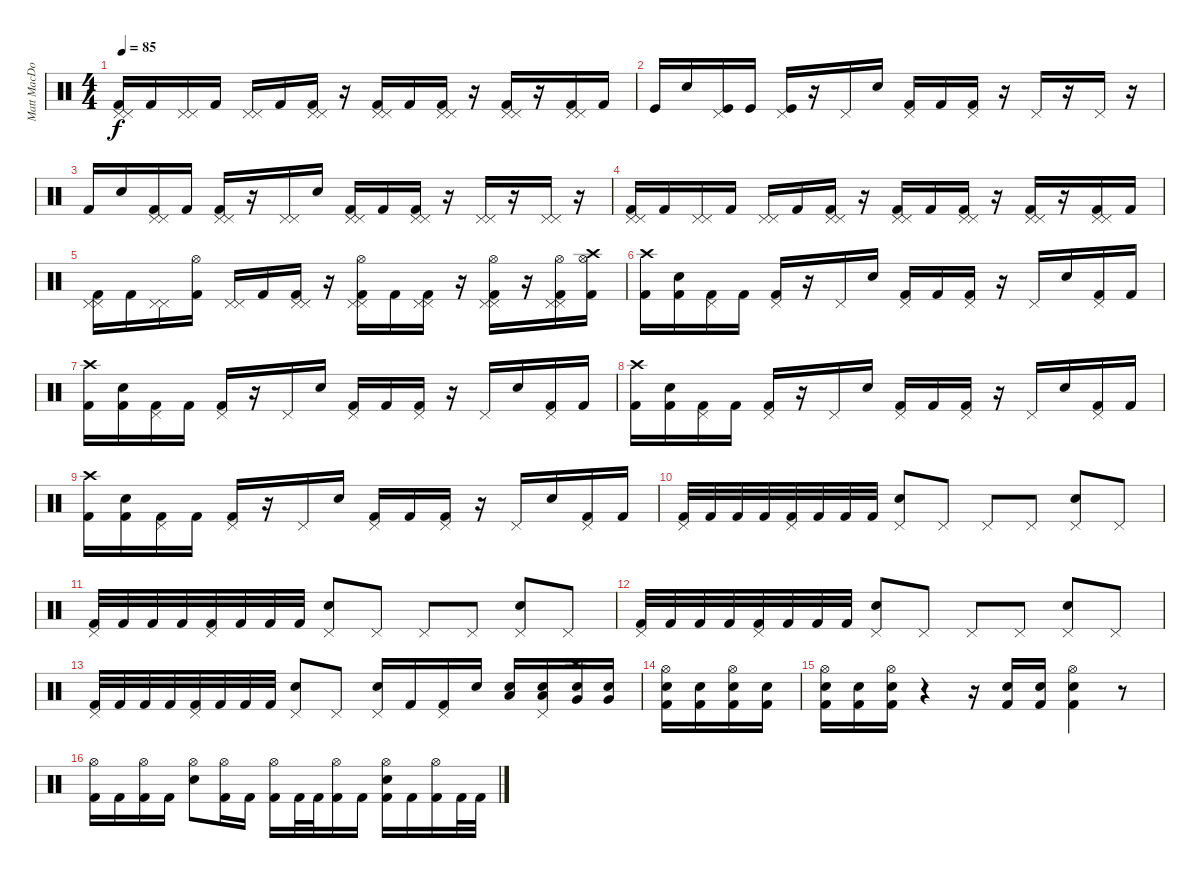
\track ("Matt MacDonough" "Matt MacDo") {instrument percussion}
\staff {score}
\articulation defaults
\ts (4 4)
\tempo 85
\clef neutral
\ks c
("Pedal Hi-Hat (hit)" "Pedal Hi-Hat (hit)" "Kick (hit) 2").16{dy f} "Kick (hit) 2".16 ("Pedal Hi-Hat (hit)" "Pedal Hi-Hat (hit)").16 "Kick (hit) 2".16 ("Pedal Hi-Hat (hit)" "Pedal Hi-Hat (hit)").16 "Kick (hit) 2".16 ("Pedal Hi-Hat (hit)" "Pedal Hi-Hat (hit)" "Kick (hit) 2").16 r.16 ("Pedal Hi-Hat (hit)" "Pedal Hi-Hat (hit)" "Kick (hit) 2").16 "Kick (hit) 2".16 ("Pedal Hi-Hat (hit)" "Pedal Hi-Hat (hit)" "Kick (hit) 2").16 r.16 ("Pedal Hi-Hat (hit)" "Pedal Hi-Hat (hit)" "Kick (hit) 2").16 r.16 ("Pedal Hi-Hat (hit)" "Pedal Hi-Hat (hit)" "Kick (hit) 2").16 "Kick (hit) 2".16 |
"Kick (hit)".16 "Electric Snare (hit)".16 ("Pedal Hi-Hat (hit)" "Kick (hit)").16 "Kick (hit)".16 ("Pedal Hi-Hat (hit)" "Kick (hit)").16 r.16 "Pedal Hi-Hat (hit)".16 "Electric Snare (hit)".16 ("Pedal Hi-Hat (hit)" "Kick (hit) 2").16 "Kick (hit) 2".16 ("Pedal Hi-Hat (hit)" "Kick (hit) 2").16 r.16 "Pedal Hi-Hat (hit)".16 r.16 "Pedal Hi-Hat (hit)".16 r.16 |
"Kick (hit) 2".16 "Electric Snare (hit)".16 ("Pedal Hi-Hat (hit)" "Pedal Hi-Hat (hit)" "Kick (hit) 2").16 "Kick (hit) 2".16 ("Pedal Hi-Hat (hit)" "Pedal Hi-Hat (hit)" "Kick (hit) 2").16 r.16 ("Pedal Hi-Hat (hit)" "Pedal Hi-Hat (hit)").16 "Electric Snare (hit)".16 ("Pedal Hi-Hat (hit)" "Pedal Hi-Hat (hit)" "Kick (hit) 2").16 "Kick (hit) 2".16 ("Pedal Hi-Hat (hit)" "Pedal Hi-Hat (hit)" "Kick (hit) 2").16 r.16 ("Pedal Hi-Hat (hit)" "Pedal Hi-Hat (hit)").16 r.16 ("Pedal Hi-Hat (hit)" "Pedal Hi-Hat (hit)").16 r.16 |
("Pedal Hi-Hat (hit)" "Pedal Hi-Hat (hit)" "Kick (hit) 2").16 "Kick (hit) 2".16 ("Pedal Hi-Hat (hit)" "Pedal Hi-Hat (hit)").16 "Kick (hit) 2".16 ("Pedal Hi-Hat (hit)" "Pedal Hi-Hat (hit)").16 "Kick (hit) 2".16 ("Pedal Hi-Hat (hit)" "Pedal Hi-Hat (hit)" "Kick (hit) 2").16 r.16 ("Pedal Hi-Hat (hit)" "Pedal Hi-Hat (hit)" "Kick (hit) 2").16 "Kick (hit) 2".16 ("Pedal Hi-Hat (hit)" "Pedal Hi-Hat (hit)" "Kick (hit) 2").16 r.16 ("Pedal Hi-Hat (hit)" "Pedal Hi-Hat (hit)" "Kick (hit) 2").16 r.16 ("Pedal Hi-Hat (hit)" "Pedal Hi-Hat (hit)" "Kick (hit) 2").16 "Kick (hit) 2".16 |
("Pedal Hi-Hat (hit)" "Pedal Hi-Hat (hit)" "Kick (hit) 2").16 "Kick (hit) 2".16 ("Pedal Hi-Hat (hit)" "Pedal Hi-Hat (hit)").16 ("Hi-Hat (open)" "Kick (hit) 2").16 ("Pedal Hi-Hat (hit)" "Pedal Hi-Hat (hit)").16 "Kick (hit) 2".16 ("Pedal Hi-Hat (hit)" "Pedal Hi-Hat (hit)" "Kick (hit) 2").16 r.16 ("Pedal Hi-Hat (hit)" "Pedal Hi-Hat (hit)" "Hi-Hat (open)" "Kick (hit) 2").16 "Kick (hit) 2".16 ("Pedal Hi-Hat (hit)" "Pedal Hi-Hat (hit)" "Kick (hit) 2").16 r.16 ("Pedal Hi-Hat (hit)" "Pedal Hi-Hat (hit)" "Hi-Hat (open)" "Kick (hit) 2").16 r.16 ("Pedal Hi-Hat (hit)" "Pedal Hi-Hat (hit)" "Hi-Hat (open)" "Kick (hit) 2").16 ("Crash high (hit)" "Hi-Hat (open)" "Kick (hit) 2").16 |
("Crash high (hit)" "Kick (hit) 2").16 ("Electric Snare (hit)" "Kick (hit) 2").16 ("Pedal Hi-Hat (hit)" "Kick (hit) 2").16 "Kick (hit) 2".16 ("Pedal Hi-Hat (hit)" "Kick (hit) 2").16 r.16 "Pedal Hi-Hat (hit)".16 "Electric Snare (hit)".16 ("Pedal Hi-Hat (hit)" "Kick (hit) 2").16 "Kick (hit) 2".16 ("Pedal Hi-Hat (hit)" "Kick (hit) 2").16 r.16 "Pedal Hi-Hat (hit)".16 "Electric Snare (hit)".16 ("Pedal Hi-Hat (hit)" "Kick (hit) 2").16 "Kick (hit) 2".16 |
("Crash high (hit)" "Kick (hit) 2").16 ("Electric Snare (hit)" "Kick (hit) 2").16 ("Pedal Hi-Hat (hit)" "Kick (hit) 2").16 "Kick (hit) 2".16 ("Pedal Hi-Hat (hit)" "Kick (hit) 2").16 r.16 "Pedal Hi-Hat (hit)".16 "Electric Snare (hit)".16 ("Pedal Hi-Hat (hit)" "Kick (hit) 2").16 "Kick (hit) 2".16 ("Pedal Hi-Hat (hit)" "Kick (hit) 2").16 r.16 "Pedal Hi-Hat (hit)".16 "Electric Snare (hit)".16 ("Pedal Hi-Hat (hit)" "Kick (hit) 2").16 "Kick (hit) 2".16 |
("Crash high (hit)" "Kick (hit) 2").16 ("Electric Snare (hit)" "Kick (hit) 2").16 ("Pedal Hi-Hat (hit)" "Kick (hit) 2").16 "Kick (hit) 2".16 ("Pedal Hi-Hat (hit)" "Kick (hit) 2").16 r.16 "Pedal Hi-Hat (hit)".16 "Electric Snare (hit)".16 ("Pedal Hi-Hat (hit)" "Kick (hit) 2").16 "Kick (hit) 2".16 ("Pedal Hi-Hat (hit)" "Kick (hit) 2").16 r.16 "Pedal Hi-Hat (hit)".16 "Electric Snare (hit)".16 ("Pedal Hi-Hat (hit)" "Kick (hit) 2").16 "Kick (hit) 2".16 |
("Crash high (hit)" "Kick (hit) 2").16 ("Electric Snare (hit)" "Kick (hit) 2").16 ("Pedal Hi-Hat (hit)" "Kick (hit) 2").16 "Kick (hit) 2".16 ("Pedal Hi-Hat (hit)" "Kick (hit) 2").16 r.16 "Pedal Hi-Hat (hit)".16 "Electric Snare (hit)".16 ("Pedal Hi-Hat (hit)" "Kick (hit) 2").16 "Kick (hit) 2".16 ("Pedal Hi-Hat (hit)" "Kick (hit) 2").16 r.16 "Pedal Hi-Hat (hit)".16 "Electric Snare (hit)".16 ("Pedal Hi-Hat (hit)" "Kick (hit) 2").16 "Kick (hit) 2".16 |
("Pedal Hi-Hat (hit)" "Kick (hit) 2").32 "Kick (hit) 2".32 "Kick (hit) 2".32 "Kick (hit) 2".32 ("Pedal Hi-Hat (hit)" "Kick (hit) 2").32 "Kick (hit) 2".32 "Kick (hit) 2".32 "Kick (hit) 2".32 ("Pedal Hi-Hat (hit)" "Electric Snare (hit)").8 "Pedal Hi-Hat (hit)".8 "Pedal Hi-Hat (hit)".8 "Pedal Hi-Hat (hit)".8 ("Pedal Hi-Hat (hit)" "Electric Snare (hit)").8 "Pedal Hi-Hat (hit)".8 |
("Pedal Hi-Hat (hit)" "Kick (hit) 2").32 "Kick (hit) 2".32 "Kick (hit) 2".32 "Kick (hit) 2".32 ("Pedal Hi-Hat (hit)" "Kick (hit) 2").32 "Kick (hit) 2".32 "Kick (hit) 2".32 "Kick (hit) 2".32 ("Pedal Hi-Hat (hit)" "Electric Snare (hit)").8 "Pedal Hi-Hat (hit)".8 "Pedal Hi-Hat (hit)".8 "Pedal Hi-Hat (hit)".8 ("Pedal Hi-Hat (hit)" "Electric Snare (hit)").8 "Pedal Hi-Hat (hit)".8 |
("Pedal Hi-Hat (hit)" "Kick (hit) 2").32 "Kick (hit) 2".32 "Kick (hit) 2".32 "Kick (hit) 2".32 ("Pedal Hi-Hat (hit)" "Kick (hit) 2").32 "Kick (hit) 2".32 "Kick (hit) 2".32 "Kick (hit) 2".32 ("Pedal Hi-Hat (hit)" "Electric Snare (hit)").8 "Pedal Hi-Hat (hit)".8 "Pedal Hi-Hat (hit)".8 "Pedal Hi-Hat (hit)".8 ("Pedal Hi-Hat (hit)" "Electric Snare (hit)").8 "Pedal Hi-Hat (hit)".8 |
("Pedal Hi-Hat (hit)" "Kick (hit) 2").32 "Kick (hit) 2".32 "Kick (hit) 2".32 "Kick (hit) 2".32 ("Pedal Hi-Hat (hit)" "Kick (hit) 2").32 "Kick (hit) 2".32 "Kick (hit) 2".32 "Kick (hit) 2".32 ("Pedal Hi-Hat (hit)" "Electric Snare (hit)").8 "Pedal Hi-Hat (hit)".8 ("Pedal Hi-Hat (hit)" "Electric Snare (hit)").16 "Kick (hit) 2".16 ("Pedal Hi-Hat (hit)" "Kick (hit) 2").16 "Electric Snare (hit)".16 ("Electric Snare (hit)" "Low Tom (hit)").16 ("Pedal Hi-Hat (hit)" "Electric Snare (hit)" "Low Tom (hit)").16 ("Crash high (hit)" "Electric Snare (hit)" "Very Low Tom (hit)").16 ("Electric Snare (hit)" "Very Low Tom (hit)").16 |
("Hi-Hat (open)" "Electric Snare (hit)" "Kick (hit) 2").16 ("Electric Snare (hit)" "Kick (hit) 2").16 ("Hi-Hat (open)" "Electric Snare (hit)" "Kick (hit) 2").16 ("Electric Snare (hit)" "Kick (hit) 2").16 |
("Hi-Hat (open)" "Electric Snare (hit)" "Kick (hit) 2").16 ("Electric Snare (hit)" "Kick (hit) 2").16 ("Hi-Hat (open)" "Electric Snare (hit)" "Kick (hit) 2").16 r.4 r.16 ("Electric Snare (hit)" "Kick (hit) 2").16 ("Electric Snare (hit)" "Kick (hit) 2").16 ("Hi-Hat (open)" "Electric Snare (hit)" "Kick (hit) 2").4 r.8 |
("Hi-Hat (open)" "Kick (hit) 2").16 "Kick (hit) 2".16 ("Hi-Hat (open)" "Kick (hit) 2").16 "Kick (hit) 2".16 ("Hi-Hat (open)" "Electric Snare (hit)").8 ("Hi-Hat (open)" "Kick (hit) 2").16 "Kick (hit) 2".16 ("Hi-Hat (open)" "Kick (hit) 2").16 "Kick (hit) 2".32 "Kick (hit) 2".32 ("Hi-Hat (open)" "Kick (hit) 2").16 "Kick (hit) 2".16 ("Hi-Hat (open)" "Electric Snare (hit)" "Kick (hit) 2").16 "Kick (hit) 2".16 ("Hi-Hat (open)" "Kick (hit) 2").16 "Kick (hit) 2".32 "Kick (hit) 2".32
